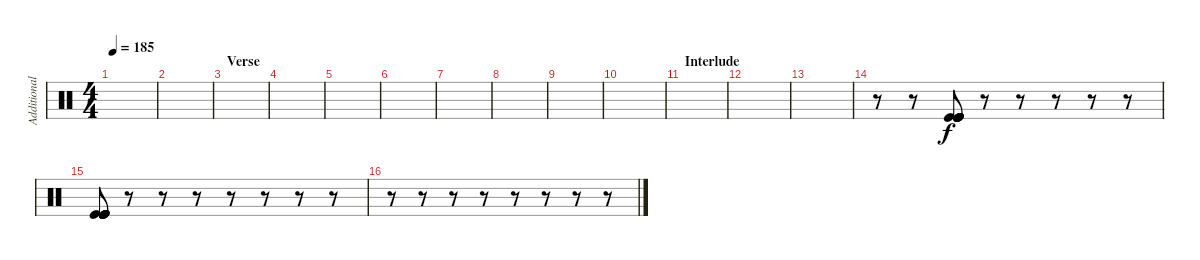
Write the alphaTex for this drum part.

\track ("Additional Bass" "Additional") {instrument percussion}
\staff {score}
\articulation defaults
\ts (4 4)
\tempo 185
\clef neutral
\ks c
|
|
\section ("" "Verse")
|
|
|
|
|
|
|
|
\section ("" "Interlude")
|
|
|
r.8 r.8 ("Kick (hit)" "Kick (hit)" "Kick (hit)" "Kick (hit)" "Kick (hit)" "Kick (hit)").8 r.8 r.8 r.8 r.8 r.8 |
("Kick (hit)" "Kick (hit)" "Kick (hit)" "Kick (hit)" "Kick (hit)" "Kick (hit)").8 r.8 r.8 r.8 r.8 r.8 r.8 r.8 |
r.8 r.8 r.8 r.8 r.8 r.8 r.8 r.8
